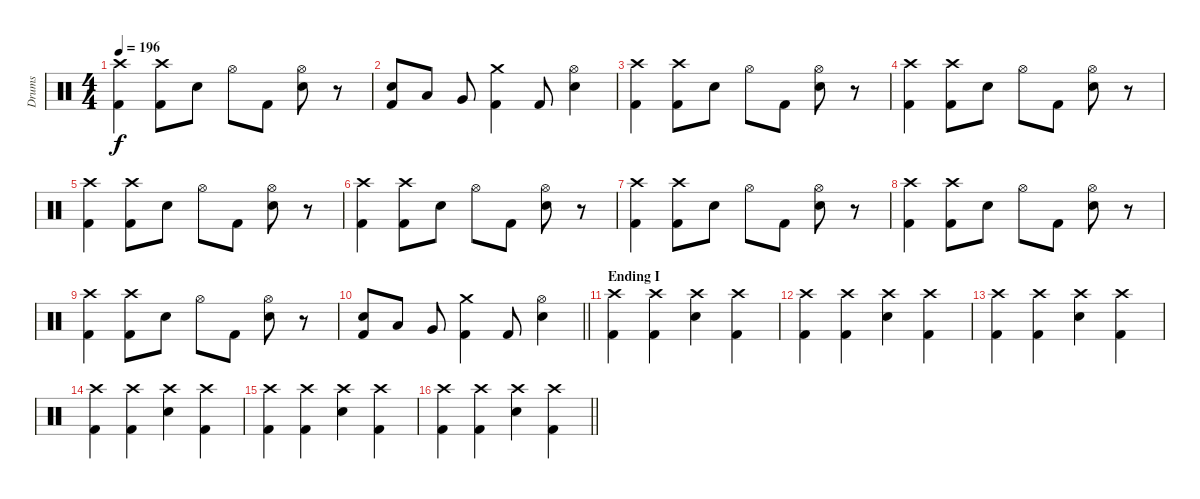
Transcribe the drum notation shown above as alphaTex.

\track ("Drums" "Drums") {instrument percussion}
\staff {score}
\articulation defaults
\ts (4 4)
\tempo 196
\clef neutral
\ks c
("Crash high (hit)" "Kick (hit) 2").4{dy f} ("Crash high (hit)" "Kick (hit) 2").8 "Electric Snare (hit)".8 "Hi-Hat (open)".8 "Kick (hit) 2".8 ("Hi-Hat (open)" "Electric Snare (hit)").8 r.8 |
("Electric Snare (hit)" "Kick (hit) 2").8 "Low Tom (hit)".8 "Very Low Tom (hit)".8 ("Crash medium (hit)" "Kick (hit) 2").4 "Kick (hit) 2".8 ("Hi-Hat (open)" "Electric Snare (hit)").4 |
("Crash high (hit)" "Kick (hit) 2").4 ("Crash high (hit)" "Kick (hit) 2").8 "Electric Snare (hit)".8 "Hi-Hat (open)".8 "Kick (hit) 2".8 ("Hi-Hat (open)" "Electric Snare (hit)").8 r.8 |
("Crash high (hit)" "Kick (hit) 2").4 ("Crash high (hit)" "Kick (hit) 2").8 "Electric Snare (hit)".8 "Hi-Hat (open)".8 "Kick (hit) 2".8 ("Hi-Hat (open)" "Electric Snare (hit)").8 r.8 |
("Crash high (hit)" "Kick (hit) 2").4 ("Crash high (hit)" "Kick (hit) 2").8 "Electric Snare (hit)".8 "Hi-Hat (open)".8 "Kick (hit) 2".8 ("Hi-Hat (open)" "Electric Snare (hit)").8 r.8 |
("Crash high (hit)" "Kick (hit) 2").4 ("Crash high (hit)" "Kick (hit) 2").8 "Electric Snare (hit)".8 "Hi-Hat (open)".8 "Kick (hit) 2".8 ("Hi-Hat (open)" "Electric Snare (hit)").8 r.8 |
("Crash high (hit)" "Kick (hit) 2").4 ("Crash high (hit)" "Kick (hit) 2").8 "Electric Snare (hit)".8 "Hi-Hat (open)".8 "Kick (hit) 2".8 ("Hi-Hat (open)" "Electric Snare (hit)").8 r.8 |
("Crash high (hit)" "Kick (hit) 2").4 ("Crash high (hit)" "Kick (hit) 2").8 "Electric Snare (hit)".8 "Hi-Hat (open)".8 "Kick (hit) 2".8 ("Hi-Hat (open)" "Electric Snare (hit)").8 r.8 |
("Crash high (hit)" "Kick (hit) 2").4 ("Crash high (hit)" "Kick (hit) 2").8 "Electric Snare (hit)".8 "Hi-Hat (open)".8 "Kick (hit) 2".8 ("Hi-Hat (open)" "Electric Snare (hit)").8 r.8 |
\barLineRight lightlight
("Electric Snare (hit)" "Kick (hit) 2").8 "Low Tom (hit)".8 "Very Low Tom (hit)".8 ("Crash medium (hit)" "Kick (hit) 2").4 "Kick (hit) 2".8 ("Hi-Hat (open)" "Electric Snare (hit)").4 |
\section ("" "Ending I")
("Crash high (hit)" "Kick (hit) 2").4 ("Crash high (hit)" "Kick (hit) 2").4 ("Crash high (hit)" "Electric Snare (hit)").4 ("Crash high (hit)" "Kick (hit) 2").4 |
("Crash high (hit)" "Kick (hit) 2").4 ("Crash high (hit)" "Kick (hit) 2").4 ("Crash high (hit)" "Electric Snare (hit)").4 ("Crash high (hit)" "Kick (hit) 2").4 |
("Crash high (hit)" "Kick (hit) 2").4 ("Crash high (hit)" "Kick (hit) 2").4 ("Crash high (hit)" "Electric Snare (hit)").4 ("Crash high (hit)" "Kick (hit) 2").4 |
("Crash high (hit)" "Kick (hit) 2").4 ("Crash high (hit)" "Kick (hit) 2").4 ("Crash high (hit)" "Electric Snare (hit)").4 ("Crash high (hit)" "Kick (hit) 2").4 |
("Crash high (hit)" "Kick (hit) 2").4 ("Crash high (hit)" "Kick (hit) 2").4 ("Crash high (hit)" "Electric Snare (hit)").4 ("Crash high (hit)" "Kick (hit) 2").4 |
\barLineRight lightlight
("Crash high (hit)" "Kick (hit) 2").4 ("Crash high (hit)" "Kick (hit) 2").4 ("Crash high (hit)" "Electric Snare (hit)").4 ("Crash high (hit)" "Kick (hit) 2").4
